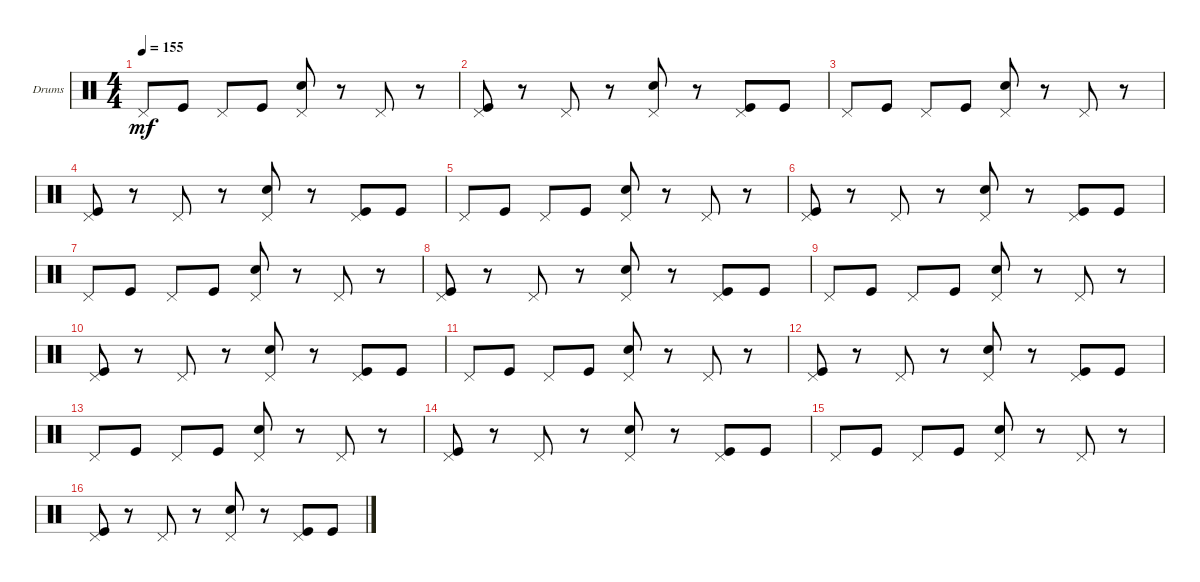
\defaultSystemsLayout 4
\bracketExtendMode groupsimilarinstruments
\firstSystemTrackNameOrientation horizontal
\otherSystemsTrackNameOrientation horizontal
\track ("Drumkit" "Drums") {instrument percussion}
\staff {score}
\articulation defaults
\ts (4 4)
\tempo 155
\clef neutral
\scale
0.333333
\ks c "Pedal Hi-Hat (hit)".8{dy mf} "Kick (hit)".8 "Pedal Hi-Hat (hit)".8 "Kick (hit)".8
("Pedal Hi-Hat (hit)" "Snare (hit) 2").8 r.8 "Pedal Hi-Hat (hit)".8 r.8 |
\scale
0.333333 ("Kick (hit)" "Pedal Hi-Hat (hit)").8 r.8 "Pedal Hi-Hat (hit)".8 r.8 ("Pedal Hi-Hat (hit)" "Snare (hit) 2").8 r.8 ("Kick (hit)" "Pedal Hi-Hat (hit)").8 "Kick (hit)".8 |
\scale
0.333333 "Pedal Hi-Hat (hit)".8 "Kick (hit)".8 "Pedal Hi-Hat (hit)".8 "Kick (hit)".8 ("Pedal Hi-Hat (hit)" "Snare (hit) 2").8 r.8 "Pedal Hi-Hat (hit)".8 r.8 |
\scale
0.333333 ("Kick (hit)" "Pedal Hi-Hat (hit)").8 r.8 "Pedal Hi-Hat (hit)".8 r.8 ("Pedal Hi-Hat (hit)" "Snare (hit) 2").8 r.8 ("Kick (hit)" "Pedal Hi-Hat (hit)").8 "Kick (hit)".8 |
\scale
0.333333 "Pedal Hi-Hat (hit)".8 "Kick (hit)".8 "Pedal Hi-Hat (hit)".8 "Kick (hit)".8 ("Pedal Hi-Hat (hit)" "Snare (hit) 2").8 r.8 "Pedal Hi-Hat (hit)".8 r.8 |
("Kick (hit)" "Pedal Hi-Hat (hit)").8 r.8 "Pedal Hi-Hat (hit)".8 r.8 ("Pedal Hi-Hat (hit)" "Snare (hit) 2").8 r.8 ("Kick (hit)" "Pedal Hi-Hat (hit)").8 "Kick (hit)".8 |
"Pedal Hi-Hat (hit)".8 "Kick (hit)".8 "Pedal Hi-Hat (hit)".8 "Kick (hit)".8 ("Pedal Hi-Hat (hit)" "Snare (hit) 2").8 r.8 "Pedal Hi-Hat (hit)".8 r.8 |
("Kick (hit)" "Pedal Hi-Hat (hit)").8 r.8 "Pedal Hi-Hat (hit)".8 r.8 ("Pedal Hi-Hat (hit)" "Snare (hit) 2").8 r.8 ("Kick (hit)" "Pedal Hi-Hat (hit)").8 "Kick (hit)".8 |
"Pedal Hi-Hat (hit)".8 "Kick (hit)".8 "Pedal Hi-Hat (hit)".8 "Kick (hit)".8 ("Pedal Hi-Hat (hit)" "Snare (hit) 2").8 r.8 "Pedal Hi-Hat (hit)".8 r.8 |
("Kick (hit)" "Pedal Hi-Hat (hit)").8 r.8 "Pedal Hi-Hat (hit)".8 r.8 ("Pedal Hi-Hat (hit)" "Snare (hit) 2").8 r.8 ("Kick (hit)" "Pedal Hi-Hat (hit)").8 "Kick (hit)".8 |
"Pedal Hi-Hat (hit)".8 "Kick (hit)".8 "Pedal Hi-Hat (hit)".8 "Kick (hit)".8 ("Pedal Hi-Hat (hit)" "Snare (hit) 2").8 r.8 "Pedal Hi-Hat (hit)".8 r.8 |
("Kick (hit)" "Pedal Hi-Hat (hit)").8 r.8 "Pedal Hi-Hat (hit)".8 r.8 ("Pedal Hi-Hat (hit)" "Snare (hit) 2").8 r.8 ("Kick (hit)" "Pedal Hi-Hat (hit)").8 "Kick (hit)".8 |
"Pedal Hi-Hat (hit)".8 "Kick (hit)".8 "Pedal Hi-Hat (hit)".8 "Kick (hit)".8 ("Pedal Hi-Hat (hit)" "Snare (hit) 2").8 r.8 "Pedal Hi-Hat (hit)".8 r.8 |
\scale
0.333333 ("Kick (hit)" "Pedal Hi-Hat (hit)").8 r.8 "Pedal Hi-Hat (hit)".8 r.8 ("Pedal Hi-Hat (hit)" "Snare (hit) 2").8 r.8 ("Kick (hit)" "Pedal Hi-Hat (hit)").8 "Kick (hit)".8 |
\scale
0.333333 "Pedal Hi-Hat (hit)".8 "Kick (hit)".8 "Pedal Hi-Hat (hit)".8 "Kick (hit)".8 ("Pedal Hi-Hat (hit)" "Snare (hit) 2").8 r.8 "Pedal Hi-Hat (hit)".8 r.8 |
\scale
0.333333 ("Kick (hit)" "Pedal Hi-Hat (hit)").8 r.8 "Pedal Hi-Hat (hit)".8 r.8 ("Pedal Hi-Hat (hit)" "Snare (hit) 2").8 r.8 ("Kick (hit)" "Pedal Hi-Hat (hit)").8 "Kick (hit)".8
